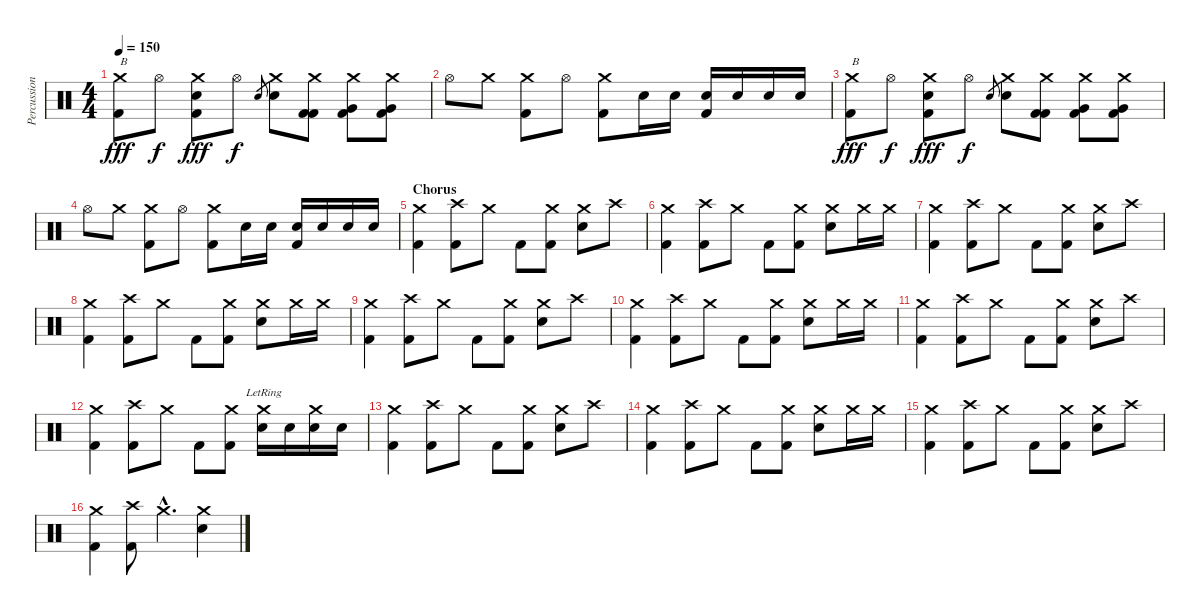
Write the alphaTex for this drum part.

\track ("Percussion" "Percussion") {instrument percussion}
\staff {score}
\articulation defaults
\ts (4 4)
\tempo 150
\clef neutral
\ks c
("Crash medium (hit)" "Kick (hit) 2").8{txt "B" dy fff} "Hi-Hat (open)".8{dy f} ("Crash medium (hit)" "Electric Snare (hit)" "Kick (hit) 2").8{dy fff} "Hi-Hat (open)".8{dy f} "Snare (hit) 2".8{gr} ("Crash medium (hit)" "Snare (hit) 2").8 ("Crash medium (hit)" "Kick (hit) 2" "Kick (hit) 2").8 ("Crash medium (hit)" "Very Low Tom (hit)" "Kick (hit) 2").8 ("Crash medium (hit)" "Very Low Tom (hit)" "Kick (hit) 2").8 |
"Hi-Hat (open)".8 "Crash medium (hit)".8 ("Crash medium (hit)" "Kick (hit) 2").8 "Hi-Hat (open)".8 ("Crash medium (hit)" "Kick (hit) 2").8 "Snare (hit) 2".16 "Snare (hit) 2".16 ("Snare (hit) 2" "Kick (hit) 2").16 "Snare (hit) 2".16 "Snare (hit) 2".16 "Snare (hit) 2".16 |
("Crash medium (hit)" "Kick (hit) 2").8{txt "B" dy fff} "Hi-Hat (open)".8{dy f} ("Crash medium (hit)" "Electric Snare (hit)" "Kick (hit) 2").8{dy fff} "Hi-Hat (open)".8{dy f} "Snare (hit) 2".8{gr} ("Crash medium (hit)" "Snare (hit) 2").8 ("Crash medium (hit)" "Kick (hit) 2" "Kick (hit) 2").8 ("Crash medium (hit)" "Very Low Tom (hit)" "Kick (hit) 2").8 ("Crash medium (hit)" "Very Low Tom (hit)" "Kick (hit) 2").8 |
"Hi-Hat (open)".8 "Crash medium (hit)".8 ("Crash medium (hit)" "Kick (hit) 2").8 "Hi-Hat (open)".8 ("Crash medium (hit)" "Kick (hit) 2").8 "Snare (hit) 2".16 "Snare (hit) 2".16 ("Snare (hit) 2" "Kick (hit) 2").16 "Snare (hit) 2".16 "Snare (hit) 2".16 "Snare (hit) 2".16 |
\section ("" "Chorus")
("Crash medium (hit)" "Kick (hit) 2").4 ("Crash high (hit)" "Kick (hit) 2").8 "Crash medium (hit)".8 "Kick (hit) 2".8 ("Crash medium (hit)" "Kick (hit) 2").8 ("Crash medium (hit)" "Snare (hit) 2").8 "Crash high (hit)".8 |
("Crash medium (hit)" "Kick (hit) 2").4 ("Crash high (hit)" "Kick (hit) 2").8 "Crash medium (hit)".8 "Kick (hit) 2".8 ("Crash medium (hit)" "Kick (hit) 2").8 ("Crash medium (hit)" "Snare (hit) 2").8 "Crash medium (hit)".16 "Crash medium (hit)".16 |
("Crash medium (hit)" "Kick (hit) 2").4 ("Crash high (hit)" "Kick (hit) 2").8 "Crash medium (hit)".8 "Kick (hit) 2".8 ("Crash medium (hit)" "Kick (hit) 2").8 ("Crash medium (hit)" "Snare (hit) 2").8 "Crash high (hit)".8 |
("Crash medium (hit)" "Kick (hit) 2").4 ("Crash high (hit)" "Kick (hit) 2").8 "Crash medium (hit)".8 "Kick (hit) 2".8 ("Crash medium (hit)" "Kick (hit) 2").8 ("Crash medium (hit)" "Snare (hit) 2").8 "Crash medium (hit)".16 "Crash medium (hit)".16 |
("Crash medium (hit)" "Kick (hit) 2").4 ("Crash high (hit)" "Kick (hit) 2").8 "Crash medium (hit)".8 "Kick (hit) 2".8 ("Crash medium (hit)" "Kick (hit) 2").8 ("Crash medium (hit)" "Snare (hit) 2").8 "Crash high (hit)".8 |
("Crash medium (hit)" "Kick (hit) 2").4 ("Crash high (hit)" "Kick (hit) 2").8 "Crash medium (hit)".8 "Kick (hit) 2".8 ("Crash medium (hit)" "Kick (hit) 2").8 ("Crash medium (hit)" "Snare (hit) 2").8 "Crash medium (hit)".16 "Crash medium (hit)".16 |
("Crash medium (hit)" "Kick (hit) 2").4 ("Crash high (hit)" "Kick (hit) 2").8 "Crash medium (hit)".8 "Kick (hit) 2".8 ("Crash medium (hit)" "Kick (hit) 2").8 ("Crash medium (hit)" "Snare (hit) 2").8 "Crash high (hit)".8 |
("Crash medium (hit)" "Kick (hit) 2").4 ("Crash high (hit)" "Kick (hit) 2").8 "Crash medium (hit)".8 "Kick (hit) 2".8 ("Crash medium (hit)" "Kick (hit) 2").8 ("Crash medium (hit)"{lr} "Electric Snare (hit)").16 "Electric Snare (hit)".16 ("Crash medium (hit)" "Electric Snare (hit)").16 "Electric Snare (hit)".16 |
("Crash medium (hit)" "Kick (hit) 2").4 ("Crash high (hit)" "Kick (hit) 2").8 "Crash medium (hit)".8 "Kick (hit) 2".8 ("Crash medium (hit)" "Kick (hit) 2").8 ("Crash medium (hit)" "Snare (hit) 2").8 "Crash high (hit)".8 |
("Crash medium (hit)" "Kick (hit) 2").4 ("Crash high (hit)" "Kick (hit) 2").8 "Crash medium (hit)".8 "Kick (hit) 2".8 ("Crash medium (hit)" "Kick (hit) 2").8 ("Crash medium (hit)" "Snare (hit) 2").8 "Crash medium (hit)".16 "Crash medium (hit)".16 |
("Crash medium (hit)" "Kick (hit) 2").4 ("Crash high (hit)" "Kick (hit) 2").8 "Crash medium (hit)".8 "Kick (hit) 2".8 ("Crash medium (hit)" "Kick (hit) 2").8 ("Crash medium (hit)" "Snare (hit) 2").8 "Crash high (hit)".8 |
("Crash medium (hit)" "Kick (hit) 2").4 ("Crash high (hit)" "Kick (hit) 2").8 "Crash medium (hit)"{hac}.4{d} ("Crash medium (hit)" "Snare (hit) 2").4
